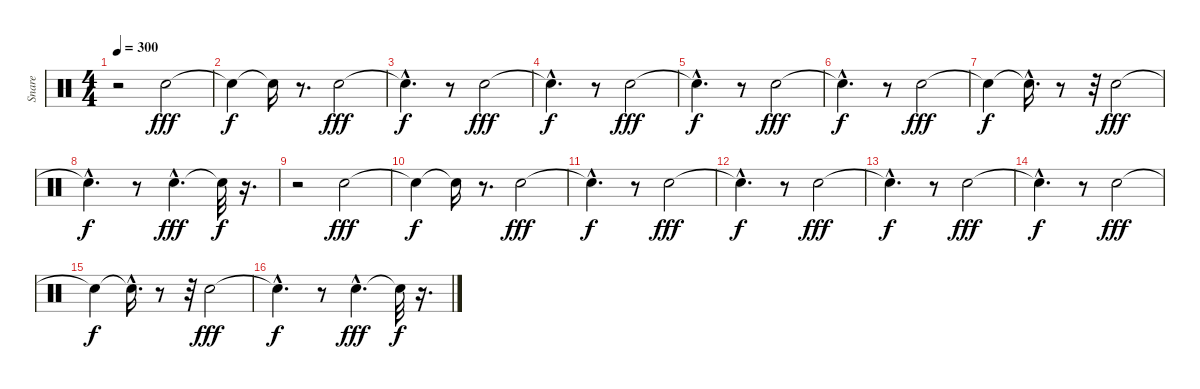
\track ("Snare" "Snare") {instrument percussion}
\staff {score}
\articulation defaults
\ts (4 4)
\tempo 300
\clef neutral
\ks c
r.2{dy f} "Electric Snare (hit)".2{dy fff} |
"Snare (hit)"{t}.4{dy f} "Snare (hit)"{t}.16 r.8{d} "Electric Snare (hit)".2{dy fff} |
"Snare (hit)"{hac t}.4{d dy f} r.8 "Electric Snare (hit)".2{dy fff} |
"Snare (hit)"{hac t}.4{d dy f} r.8 "Electric Snare (hit)".2{dy fff} |
"Snare (hit)"{hac t}.4{d dy f} r.8 "Electric Snare (hit)".2{dy fff} |
"Snare (hit)"{hac t}.4{d dy f} r.8 "Electric Snare (hit)".2{dy fff} |
"Snare (hit)"{t}.4{dy f} "Snare (hit)"{hac t}.16{d} r.8 r.32 "Electric Snare (hit)".2{dy fff} |
"Snare (hit)"{hac t}.4{d dy f} r.8 "Electric Snare (hit)"{hac}.4{d dy fff} "Snare (hit)"{t}.32{dy f} r.16{d} |
r.2 "Electric Snare (hit)".2{dy fff} |
"Snare (hit)"{t}.4{dy f} "Snare (hit)"{t}.16 r.8{d} "Electric Snare (hit)".2{dy fff} |
"Snare (hit)"{hac t}.4{d dy f} r.8 "Electric Snare (hit)".2{dy fff} |
"Snare (hit)"{hac t}.4{d dy f} r.8 "Electric Snare (hit)".2{dy fff} |
"Snare (hit)"{hac t}.4{d dy f} r.8 "Electric Snare (hit)".2{dy fff} |
"Snare (hit)"{hac t}.4{d dy f} r.8 "Electric Snare (hit)".2{dy fff} |
"Snare (hit)"{t}.4{dy f} "Snare (hit)"{hac t}.16{d} r.8 r.32 "Electric Snare (hit)".2{dy fff} |
"Snare (hit)"{hac t}.4{d dy f} r.8 "Electric Snare (hit)"{hac}.4{d dy fff} "Snare (hit)"{t}.32{dy f} r.16{d}
